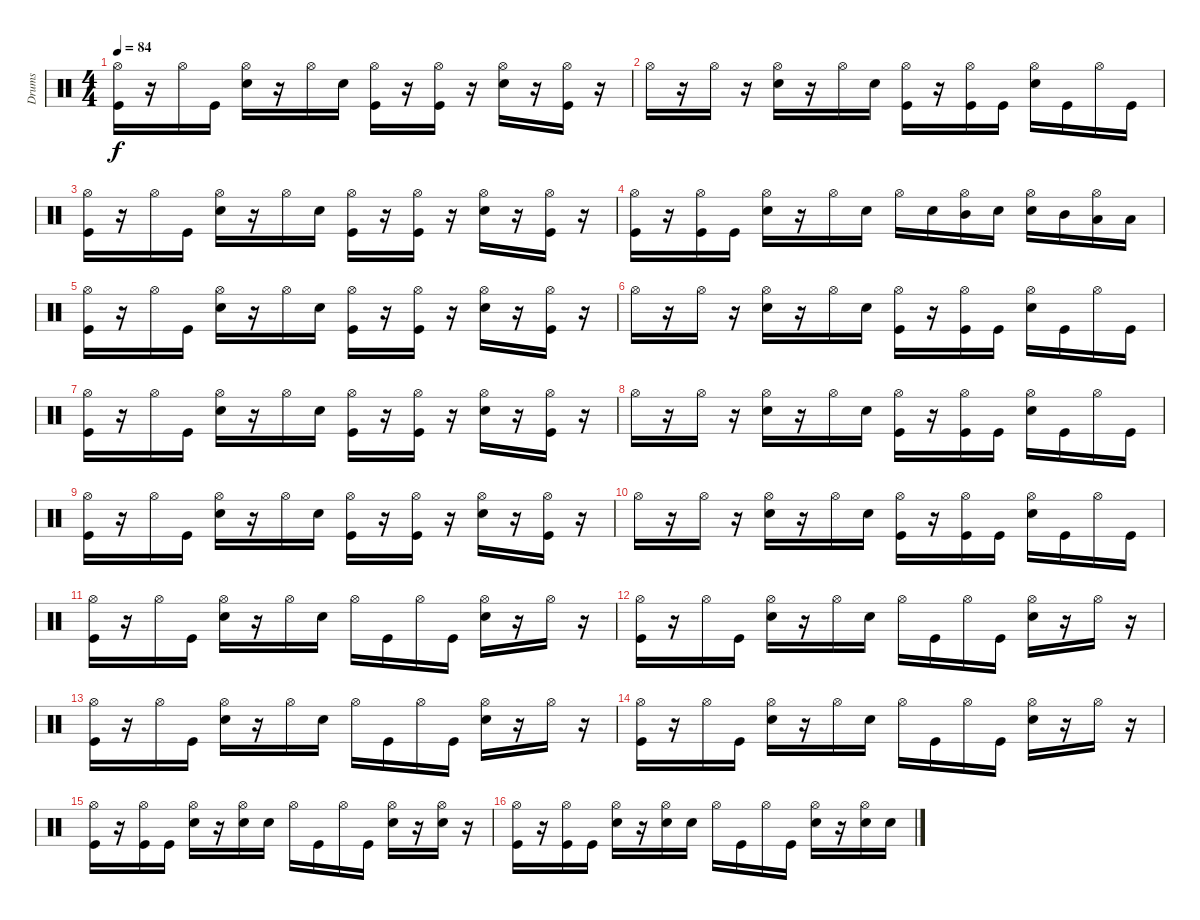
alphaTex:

\track ("Drums" "Drums") {instrument percussion}
\staff {score}
\articulation defaults
\ts (4 4)
\tempo 84
\clef neutral
\ks c
("Hi-Hat (open)" "Kick (hit)").16{dy f} r.16 "Hi-Hat (open)".16 "Kick (hit)".16 ("Hi-Hat (open)" "Snare (hit) 2").16 r.16 "Hi-Hat (open)".16 "Snare (hit) 2".16 ("Hi-Hat (open)" "Kick (hit)").16 r.16 ("Hi-Hat (open)" "Kick (hit)").16 r.16 ("Hi-Hat (open)" "Snare (hit) 2").16 r.16 ("Hi-Hat (open)" "Kick (hit)").16 r.16 |
"Hi-Hat (open)".16 r.16 "Hi-Hat (open)".16 r.16 ("Hi-Hat (open)" "Snare (hit) 2").16 r.16 "Hi-Hat (open)".16 "Snare (hit) 2".16 ("Hi-Hat (open)" "Kick (hit)").16 r.16 ("Hi-Hat (open)" "Kick (hit)").16 "Kick (hit)".16 ("Hi-Hat (open)" "Snare (hit) 2").16 "Kick (hit)".16 "Hi-Hat (open)".16 "Kick (hit)".16 |
("Hi-Hat (open)" "Kick (hit)").16 r.16 "Hi-Hat (open)".16 "Kick (hit)".16 ("Hi-Hat (open)" "Snare (hit) 2").16 r.16 "Hi-Hat (open)".16 "Snare (hit) 2".16 ("Hi-Hat (open)" "Kick (hit)").16 r.16 ("Hi-Hat (open)" "Kick (hit)").16 r.16 ("Hi-Hat (open)" "Snare (hit) 2").16 r.16 ("Hi-Hat (open)" "Kick (hit)").16 r.16 |
("Hi-Hat (open)" "Kick (hit)").16 r.16 ("Hi-Hat (open)" "Kick (hit)").16 "Kick (hit)".16 ("Hi-Hat (open)" "Snare (hit) 2").16 r.16 "Hi-Hat (open)".16 "Snare (hit) 2".16 "Hi-Hat (open)".16 "Snare (hit) 2".16 ("Hi-Hat (open)" "Mid Tom (hit)").16 "Snare (hit) 2".16 ("Hi-Hat (open)" "Snare (hit) 2").16 "Mid Tom (hit)".16 ("Hi-Hat (open)" "Low Tom (hit)").16 "Low Floor Tom (hit)".16 |
("Hi-Hat (open)" "Kick (hit)").16 r.16 "Hi-Hat (open)".16 "Kick (hit)".16 ("Hi-Hat (open)" "Snare (hit) 2").16 r.16 "Hi-Hat (open)".16 "Snare (hit) 2".16 ("Hi-Hat (open)" "Kick (hit)").16 r.16 ("Hi-Hat (open)" "Kick (hit)").16 r.16 ("Hi-Hat (open)" "Snare (hit) 2").16 r.16 ("Hi-Hat (open)" "Kick (hit)").16 r.16 |
"Hi-Hat (open)".16 r.16 "Hi-Hat (open)".16 r.16 ("Hi-Hat (open)" "Snare (hit) 2").16 r.16 "Hi-Hat (open)".16 "Snare (hit) 2".16 ("Hi-Hat (open)" "Kick (hit)").16 r.16 ("Hi-Hat (open)" "Kick (hit)").16 "Kick (hit)".16 ("Hi-Hat (open)" "Snare (hit) 2").16 "Kick (hit)".16 "Hi-Hat (open)".16 "Kick (hit)".16 |
("Hi-Hat (open)" "Kick (hit)").16 r.16 "Hi-Hat (open)".16 "Kick (hit)".16 ("Hi-Hat (open)" "Snare (hit) 2").16 r.16 "Hi-Hat (open)".16 "Snare (hit) 2".16 ("Hi-Hat (open)" "Kick (hit)").16 r.16 ("Hi-Hat (open)" "Kick (hit)").16 r.16 ("Hi-Hat (open)" "Snare (hit) 2").16 r.16 ("Hi-Hat (open)" "Kick (hit)").16 r.16 |
"Hi-Hat (open)".16 r.16 "Hi-Hat (open)".16 r.16 ("Hi-Hat (open)" "Snare (hit) 2").16 r.16 "Hi-Hat (open)".16 "Snare (hit) 2".16 ("Hi-Hat (open)" "Kick (hit)").16 r.16 ("Hi-Hat (open)" "Kick (hit)").16 "Kick (hit)".16 ("Hi-Hat (open)" "Snare (hit) 2").16 "Kick (hit)".16 "Hi-Hat (open)".16 "Kick (hit)".16 |
("Hi-Hat (open)" "Kick (hit)").16 r.16 "Hi-Hat (open)".16 "Kick (hit)".16 ("Hi-Hat (open)" "Snare (hit) 2").16 r.16 "Hi-Hat (open)".16 "Snare (hit) 2".16 ("Hi-Hat (open)" "Kick (hit)").16 r.16 ("Hi-Hat (open)" "Kick (hit)").16 r.16 ("Hi-Hat (open)" "Snare (hit) 2").16 r.16 ("Hi-Hat (open)" "Kick (hit)").16 r.16 |
"Hi-Hat (open)".16 r.16 "Hi-Hat (open)".16 r.16 ("Hi-Hat (open)" "Snare (hit) 2").16 r.16 "Hi-Hat (open)".16 "Snare (hit) 2".16 ("Hi-Hat (open)" "Kick (hit)").16 r.16 ("Hi-Hat (open)" "Kick (hit)").16 "Kick (hit)".16 ("Hi-Hat (open)" "Snare (hit) 2").16 "Kick (hit)".16 "Hi-Hat (open)".16 "Kick (hit)".16 |
("Hi-Hat (open)" "Kick (hit)").16 r.16 "Hi-Hat (open)".16 "Kick (hit)".16 ("Hi-Hat (open)" "Snare (hit) 2").16 r.16 "Hi-Hat (open)".16 "Snare (hit) 2".16 "Hi-Hat (open)".16 "Kick (hit)".16 "Hi-Hat (open)".16 "Kick (hit)".16 ("Hi-Hat (open)" "Snare (hit) 2").16 r.16 "Hi-Hat (open)".16 r.16 |
("Hi-Hat (open)" "Kick (hit)").16 r.16 "Hi-Hat (open)".16 "Kick (hit)".16 ("Hi-Hat (open)" "Snare (hit) 2").16 r.16 "Hi-Hat (open)".16 "Snare (hit) 2".16 "Hi-Hat (open)".16 "Kick (hit)".16 "Hi-Hat (open)".16 "Kick (hit)".16 ("Hi-Hat (open)" "Snare (hit) 2").16 r.16 "Hi-Hat (open)".16 r.16 |
("Hi-Hat (open)" "Kick (hit)").16 r.16 "Hi-Hat (open)".16 "Kick (hit)".16 ("Hi-Hat (open)" "Snare (hit) 2").16 r.16 "Hi-Hat (open)".16 "Snare (hit) 2".16 "Hi-Hat (open)".16 "Kick (hit)".16 "Hi-Hat (open)".16 "Kick (hit)".16 ("Hi-Hat (open)" "Snare (hit) 2").16 r.16 "Hi-Hat (open)".16 r.16 |
("Hi-Hat (open)" "Kick (hit)").16 r.16 "Hi-Hat (open)".16 "Kick (hit)".16 ("Hi-Hat (open)" "Snare (hit) 2").16 r.16 "Hi-Hat (open)".16 "Snare (hit) 2".16 "Hi-Hat (open)".16 "Kick (hit)".16 "Hi-Hat (open)".16 "Kick (hit)".16 ("Hi-Hat (open)" "Snare (hit) 2").16 r.16 "Hi-Hat (open)".16 r.16 |
("Hi-Hat (open)" "Kick (hit)").16 r.16 ("Hi-Hat (open)" "Kick (hit)").16 "Kick (hit)".16 ("Hi-Hat (open)" "Snare (hit) 2").16 r.16 ("Hi-Hat (open)" "Snare (hit) 2").16 "Snare (hit) 2".16 "Hi-Hat (open)".16 "Kick (hit)".16 "Hi-Hat (open)".16 "Kick (hit)".16 ("Hi-Hat (open)" "Snare (hit) 2").16 r.16 ("Hi-Hat (open)" "Snare (hit) 2").16 r.16 |
("Hi-Hat (open)" "Kick (hit)").16 r.16 ("Hi-Hat (open)" "Kick (hit)").16 "Kick (hit)".16 ("Hi-Hat (open)" "Snare (hit) 2").16 r.16 ("Hi-Hat (open)" "Snare (hit) 2").16 "Snare (hit) 2".16 "Hi-Hat (open)".16 "Kick (hit)".16 "Hi-Hat (open)".16 "Kick (hit)".16 ("Hi-Hat (open)" "Snare (hit) 2").16 r.16 ("Hi-Hat (open)" "Snare (hit) 2").16 "Snare (hit) 2".16
